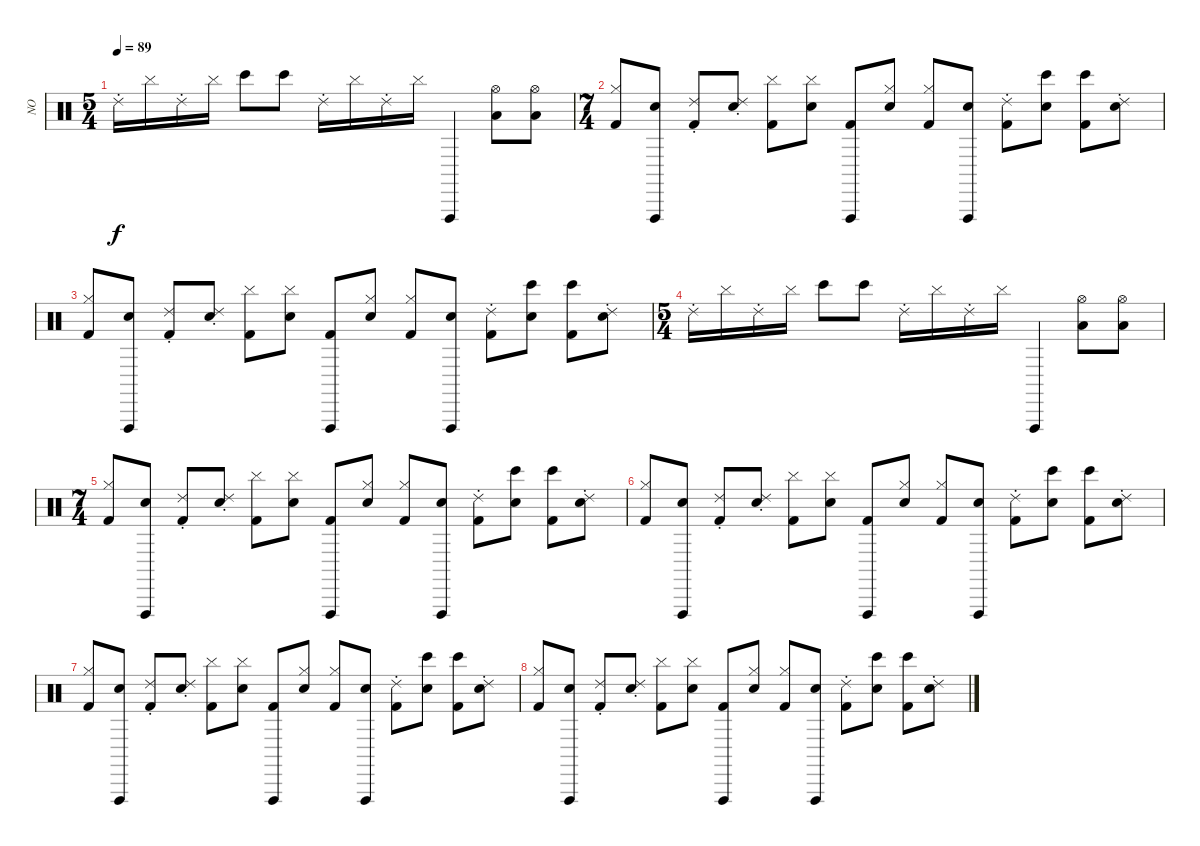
\track ("   NO" "   NO") {instrument percussion}
\staff {score}
\articulation defaults
\ts (5 4)
\tempo 89
\clef neutral
\ks c "Ride (choke) 2".16{dy f} "Cymbal (hit)".16 "Ride (choke) 2".16 "Cymbal (hit)".16 "Bongo High (hit)".8 "Bongo High (hit)".8 "Ride (choke) 2".16 "Cymbal (hit)".16 "Ride (choke) 2".16 "Cymbal (hit)".16 "Vibraslap (hit)".4
("Hi-Hat (open)" "Low Tom (hit)").8 ("Hi-Hat (open)" "Low Tom (hit)").8 |
\ts (7 4)
("Hi-Hat (closed)" "Kick (hit) 2").8 ("Vibraslap (hit)" "Electric Snare (hit)").8 ("Ride (choke) 2" "Kick (hit) 2").8 ("Ride (choke) 2" "Electric Snare (hit)").8 ("Cymbal (hit)" "Kick (hit) 2").8 ("Cymbal (hit)" "Electric Snare (hit)").8 ("Vibraslap (hit)" "Kick (hit) 2").8 ("Hi-Hat (closed)" "Electric Snare (hit)").8 ("Hi-Hat (closed)" "Kick (hit) 2").8 ("Vibraslap (hit)" "Electric Snare (hit)").8 ("Ride (choke) 2" "Kick (hit) 2").8 ("Bongo High (hit)" "Electric Snare (hit)").8 ("Bongo High (hit)" "Kick (hit) 2").8 ("Ride (choke) 2" "Electric Snare (hit)").8 |
("Hi-Hat (closed)" "Kick (hit) 2").8 ("Vibraslap (hit)" "Electric Snare (hit)").8 ("Ride (choke) 2" "Kick (hit) 2").8 ("Ride (choke) 2" "Electric Snare (hit)").8 ("Cymbal (hit)" "Kick (hit) 2").8 ("Cymbal (hit)" "Electric Snare (hit)").8 ("Vibraslap (hit)" "Kick (hit) 2").8 ("Hi-Hat (closed)" "Electric Snare (hit)").8 ("Hi-Hat (closed)" "Kick (hit) 2").8 ("Vibraslap (hit)" "Electric Snare (hit)").8 ("Ride (choke) 2" "Kick (hit) 2").8 ("Bongo High (hit)" "Electric Snare (hit)").8 ("Bongo High (hit)" "Kick (hit) 2").8 ("Ride (choke) 2" "Electric Snare (hit)").8 |
\ts (5 4)
"Ride (choke) 2".16 "Cymbal (hit)".16 "Ride (choke) 2".16 "Cymbal (hit)".16 "Bongo High (hit)".8 "Bongo High (hit)".8 "Ride (choke) 2".16 "Cymbal (hit)".16 "Ride (choke) 2".16 "Cymbal (hit)".16 "Vibraslap (hit)".4 ("Hi-Hat (open)" "Low Tom (hit)").8 ("Hi-Hat (open)" "Low Tom (hit)").8 |
\ts (7 4)
("Hi-Hat (closed)" "Kick (hit) 2").8 ("Vibraslap (hit)" "Electric Snare (hit)").8 ("Ride (choke) 2" "Kick (hit) 2").8 ("Ride (choke) 2" "Electric Snare (hit)").8 ("Cymbal (hit)" "Kick (hit) 2").8 ("Cymbal (hit)" "Electric Snare (hit)").8 ("Vibraslap (hit)" "Kick (hit) 2").8 ("Hi-Hat (closed)" "Electric Snare (hit)").8 ("Hi-Hat (closed)" "Kick (hit) 2").8 ("Vibraslap (hit)" "Electric Snare (hit)").8 ("Ride (choke) 2" "Kick (hit) 2").8 ("Bongo High (hit)" "Electric Snare (hit)").8 ("Bongo High (hit)" "Kick (hit) 2").8 ("Ride (choke) 2" "Electric Snare (hit)").8 |
("Hi-Hat (closed)" "Kick (hit) 2").8 ("Vibraslap (hit)" "Electric Snare (hit)").8 ("Ride (choke) 2" "Kick (hit) 2").8 ("Ride (choke) 2" "Electric Snare (hit)").8 ("Cymbal (hit)" "Kick (hit) 2").8 ("Cymbal (hit)" "Electric Snare (hit)").8 ("Vibraslap (hit)" "Kick (hit) 2").8 ("Hi-Hat (closed)" "Electric Snare (hit)").8 ("Hi-Hat (closed)" "Kick (hit) 2").8 ("Vibraslap (hit)" "Electric Snare (hit)").8 ("Ride (choke) 2" "Kick (hit) 2").8 ("Bongo High (hit)" "Electric Snare (hit)").8 ("Bongo High (hit)" "Kick (hit) 2").8 ("Ride (choke) 2" "Electric Snare (hit)").8 |
("Hi-Hat (closed)" "Kick (hit) 2").8 ("Vibraslap (hit)" "Electric Snare (hit)").8 ("Ride (choke) 2" "Kick (hit) 2").8 ("Ride (choke) 2" "Electric Snare (hit)").8 ("Cymbal (hit)" "Kick (hit) 2").8 ("Cymbal (hit)" "Electric Snare (hit)").8 ("Vibraslap (hit)" "Kick (hit) 2").8 ("Hi-Hat (closed)" "Electric Snare (hit)").8 ("Hi-Hat (closed)" "Kick (hit) 2").8 ("Vibraslap (hit)" "Electric Snare (hit)").8 ("Ride (choke) 2" "Kick (hit) 2").8 ("Bongo High (hit)" "Electric Snare (hit)").8 ("Bongo High (hit)" "Kick (hit) 2").8 ("Ride (choke) 2" "Electric Snare (hit)").8 |
("Hi-Hat (closed)" "Kick (hit) 2").8 ("Vibraslap (hit)" "Electric Snare (hit)").8 ("Ride (choke) 2" "Kick (hit) 2").8 ("Ride (choke) 2" "Electric Snare (hit)").8 ("Cymbal (hit)" "Kick (hit) 2").8 ("Cymbal (hit)" "Electric Snare (hit)").8 ("Vibraslap (hit)" "Kick (hit) 2").8 ("Hi-Hat (closed)" "Electric Snare (hit)").8 ("Hi-Hat (closed)" "Kick (hit) 2").8 ("Vibraslap (hit)" "Electric Snare (hit)").8 ("Ride (choke) 2" "Kick (hit) 2").8 ("Bongo High (hit)" "Electric Snare (hit)").8 ("Bongo High (hit)" "Kick (hit) 2").8 ("Ride (choke) 2" "Electric Snare (hit)").8
